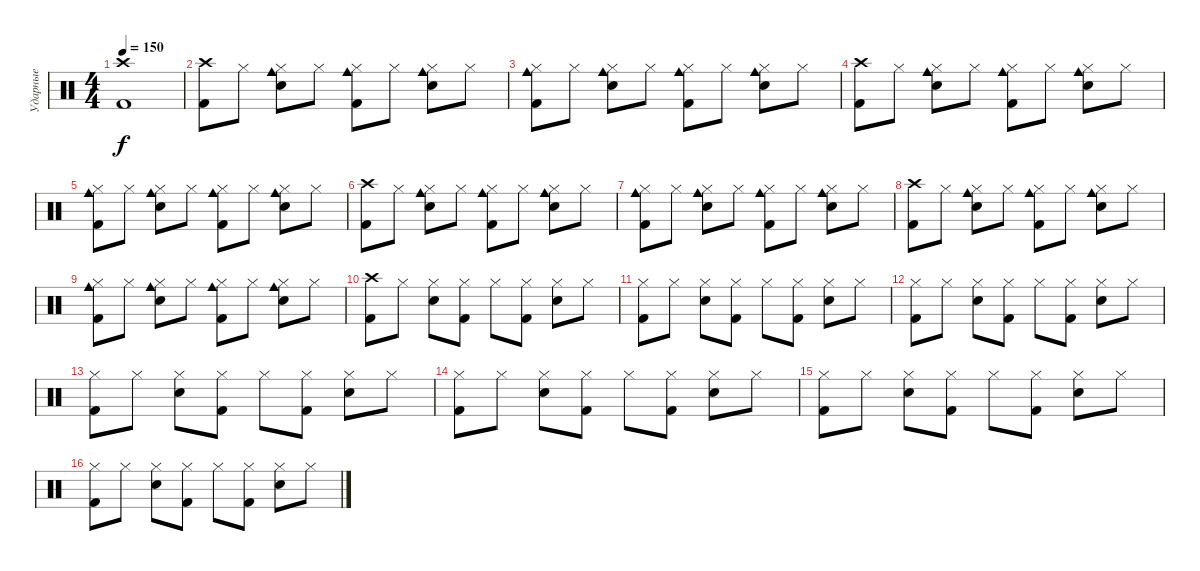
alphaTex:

\track ("Ударные" "Ударные") {instrument percussion}
\staff {score}
\articulation defaults
\ts (4 4)
\tempo 150
\clef neutral
\ks c
("Crash high (hit)" "Kick (hit) 2").1{dy f} |
("Crash high (hit)" "Kick (hit) 2").8 "Hi-Hat (closed)".8 ("Hi-Hat (closed)" "Cowbell medium (hit)" "Snare (hit) 2").8 "Hi-Hat (closed)".8 ("Hi-Hat (closed)" "Cowbell medium (hit)" "Kick (hit) 2").8 "Hi-Hat (closed)".8 ("Hi-Hat (closed)" "Cowbell medium (hit)" "Snare (hit) 2").8 "Hi-Hat (closed)".8 |
("Hi-Hat (closed)" "Cowbell medium (hit)" "Kick (hit) 2").8 "Hi-Hat (closed)".8 ("Hi-Hat (closed)" "Cowbell medium (hit)" "Snare (hit) 2").8 "Hi-Hat (closed)".8 ("Hi-Hat (closed)" "Cowbell medium (hit)" "Kick (hit) 2").8 "Hi-Hat (closed)".8 ("Hi-Hat (closed)" "Cowbell medium (hit)" "Snare (hit) 2").8 "Hi-Hat (closed)".8 |
("Crash high (hit)" "Kick (hit) 2").8 "Hi-Hat (closed)".8 ("Hi-Hat (closed)" "Cowbell medium (hit)" "Snare (hit) 2").8 "Hi-Hat (closed)".8 ("Hi-Hat (closed)" "Cowbell medium (hit)" "Kick (hit) 2").8 "Hi-Hat (closed)".8 ("Hi-Hat (closed)" "Cowbell medium (hit)" "Snare (hit) 2").8 "Hi-Hat (closed)".8 |
("Hi-Hat (closed)" "Cowbell medium (hit)" "Kick (hit) 2").8 "Hi-Hat (closed)".8 ("Hi-Hat (closed)" "Cowbell medium (hit)" "Snare (hit) 2").8 "Hi-Hat (closed)".8 ("Hi-Hat (closed)" "Cowbell medium (hit)" "Kick (hit) 2").8 "Hi-Hat (closed)".8 ("Hi-Hat (closed)" "Cowbell medium (hit)" "Snare (hit) 2").8 "Hi-Hat (closed)".8 |
("Crash high (hit)" "Kick (hit) 2").8 "Hi-Hat (closed)".8 ("Hi-Hat (closed)" "Cowbell medium (hit)" "Snare (hit) 2").8 "Hi-Hat (closed)".8 ("Hi-Hat (closed)" "Cowbell medium (hit)" "Kick (hit) 2").8 "Hi-Hat (closed)".8 ("Hi-Hat (closed)" "Cowbell medium (hit)" "Snare (hit) 2").8 "Hi-Hat (closed)".8 |
("Hi-Hat (closed)" "Cowbell medium (hit)" "Kick (hit) 2").8 "Hi-Hat (closed)".8 ("Hi-Hat (closed)" "Cowbell medium (hit)" "Snare (hit) 2").8 "Hi-Hat (closed)".8 ("Hi-Hat (closed)" "Cowbell medium (hit)" "Kick (hit) 2").8 "Hi-Hat (closed)".8 ("Hi-Hat (closed)" "Cowbell medium (hit)" "Snare (hit) 2").8 "Hi-Hat (closed)".8 |
("Crash high (hit)" "Kick (hit) 2").8 "Hi-Hat (closed)".8 ("Hi-Hat (closed)" "Cowbell medium (hit)" "Snare (hit) 2").8 "Hi-Hat (closed)".8 ("Hi-Hat (closed)" "Cowbell medium (hit)" "Kick (hit) 2").8 "Hi-Hat (closed)".8 ("Hi-Hat (closed)" "Cowbell medium (hit)" "Snare (hit) 2").8 "Hi-Hat (closed)".8 |
("Hi-Hat (closed)" "Cowbell medium (hit)" "Kick (hit) 2").8 "Hi-Hat (closed)".8 ("Hi-Hat (closed)" "Cowbell medium (hit)" "Snare (hit) 2").8 "Hi-Hat (closed)".8 ("Hi-Hat (closed)" "Cowbell medium (hit)" "Kick (hit) 2").8 "Hi-Hat (closed)".8 ("Hi-Hat (closed)" "Cowbell medium (hit)" "Snare (hit) 2").8 "Hi-Hat (closed)".8 |
("Crash high (hit)" "Kick (hit) 2").8 "Hi-Hat (closed)".8 ("Hi-Hat (closed)" "Snare (hit) 2").8 ("Hi-Hat (closed)" "Kick (hit) 2").8 "Hi-Hat (closed)".8 ("Hi-Hat (closed)" "Kick (hit) 2").8 ("Hi-Hat (closed)" "Snare (hit) 2").8 "Hi-Hat (closed)".8 |
("Hi-Hat (closed)" "Kick (hit) 2").8 "Hi-Hat (closed)".8 ("Hi-Hat (closed)" "Snare (hit) 2").8 ("Hi-Hat (closed)" "Kick (hit) 2").8 "Hi-Hat (closed)".8 ("Hi-Hat (closed)" "Kick (hit) 2").8 ("Hi-Hat (closed)" "Snare (hit) 2").8 "Hi-Hat (closed)".8 |
("Hi-Hat (closed)" "Kick (hit) 2").8 "Hi-Hat (closed)".8 ("Hi-Hat (closed)" "Snare (hit) 2").8 ("Hi-Hat (closed)" "Kick (hit) 2").8 "Hi-Hat (closed)".8 ("Hi-Hat (closed)" "Kick (hit) 2").8 ("Hi-Hat (closed)" "Snare (hit) 2").8 "Hi-Hat (closed)".8 |
("Hi-Hat (closed)" "Kick (hit) 2").8 "Hi-Hat (closed)".8 ("Hi-Hat (closed)" "Snare (hit) 2").8 ("Hi-Hat (closed)" "Kick (hit) 2").8 "Hi-Hat (closed)".8 ("Hi-Hat (closed)" "Kick (hit) 2").8 ("Hi-Hat (closed)" "Snare (hit) 2").8 "Hi-Hat (closed)".8 |
("Hi-Hat (closed)" "Kick (hit) 2").8 "Hi-Hat (closed)".8 ("Hi-Hat (closed)" "Snare (hit) 2").8 ("Hi-Hat (closed)" "Kick (hit) 2").8 "Hi-Hat (closed)".8 ("Hi-Hat (closed)" "Kick (hit) 2").8 ("Hi-Hat (closed)" "Snare (hit) 2").8 "Hi-Hat (closed)".8 |
("Hi-Hat (closed)" "Kick (hit) 2").8 "Hi-Hat (closed)".8 ("Hi-Hat (closed)" "Snare (hit) 2").8 ("Hi-Hat (closed)" "Kick (hit) 2").8 "Hi-Hat (closed)".8 ("Hi-Hat (closed)" "Kick (hit) 2").8 ("Hi-Hat (closed)" "Snare (hit) 2").8 "Hi-Hat (closed)".8 |
("Hi-Hat (closed)" "Kick (hit) 2").8 "Hi-Hat (closed)".8 ("Hi-Hat (closed)" "Snare (hit) 2").8 ("Hi-Hat (closed)" "Kick (hit) 2").8 "Hi-Hat (closed)".8 ("Hi-Hat (closed)" "Kick (hit) 2").8 ("Hi-Hat (closed)" "Snare (hit) 2").8 "Hi-Hat (closed)".8
